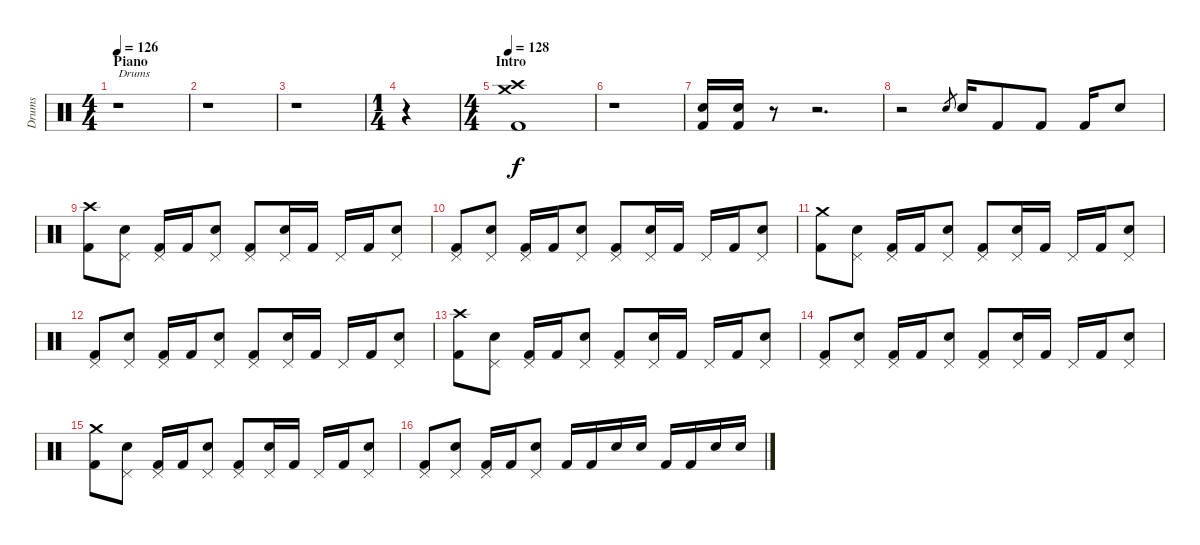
\track ("Drums" "Drums") {instrument percussion}
\staff {score}
\articulation defaults
\ts (4 4)
\section ("" "Piano")
\tempo 126
\tempo 90
\tempo 126
\clef neutral
\ks c
r.1{txt "Drums" dy f} |
r.1 |
r.1 |
\ts (1 4)
r.4 |
\ts (4 4)
\section ("" "Intro")
\tempo 128
("Crash high (hit)" "Crash medium (hit)" "Kick (hit) 2").1 |
r.1 |
("Snare (hit) 2" "Kick (hit) 2").16 ("Snare (hit) 2" "Kick (hit) 2").16 r.8 r.2{d} |
r.2 "Snare (hit) 2".8{gr} "Snare (hit) 2".16 "Kick (hit) 2".8 "Kick (hit) 2".8 "Kick (hit) 2".16 "Snare (hit) 2".8 |
("Crash high (hit)" "Kick (hit) 2").8 ("Pedal Hi-Hat (hit)" "Snare (hit) 2").8 ("Pedal Hi-Hat (hit)" "Kick (hit) 2").16 "Kick (hit) 2".16 ("Pedal Hi-Hat (hit)" "Snare (hit) 2").8 ("Pedal Hi-Hat (hit)" "Kick (hit) 2").8 ("Pedal Hi-Hat (hit)" "Snare (hit) 2").16 "Kick (hit) 2".16 "Pedal Hi-Hat (hit)".16 "Kick (hit) 2".16 ("Pedal Hi-Hat (hit)" "Snare (hit) 2").8 |
("Pedal Hi-Hat (hit)" "Kick (hit) 2").8 ("Pedal Hi-Hat (hit)" "Snare (hit) 2").8 ("Pedal Hi-Hat (hit)" "Kick (hit) 2").16 "Kick (hit) 2".16 ("Pedal Hi-Hat (hit)" "Snare (hit) 2").8 ("Pedal Hi-Hat (hit)" "Kick (hit) 2").8 ("Pedal Hi-Hat (hit)" "Snare (hit) 2").16 "Kick (hit) 2".16 "Pedal Hi-Hat (hit)".16 "Kick (hit) 2".16 ("Pedal Hi-Hat (hit)" "Snare (hit) 2").8 |
("Crash medium (hit)" "Kick (hit) 2").8 ("Pedal Hi-Hat (hit)" "Snare (hit) 2").8 ("Pedal Hi-Hat (hit)" "Kick (hit) 2").16 "Kick (hit) 2".16 ("Pedal Hi-Hat (hit)" "Snare (hit) 2").8 ("Pedal Hi-Hat (hit)" "Kick (hit) 2").8 ("Pedal Hi-Hat (hit)" "Snare (hit) 2").16 "Kick (hit) 2".16 "Pedal Hi-Hat (hit)".16 "Kick (hit) 2".16 ("Pedal Hi-Hat (hit)" "Snare (hit) 2").8 |
("Pedal Hi-Hat (hit)" "Kick (hit) 2").8 ("Pedal Hi-Hat (hit)" "Snare (hit) 2").8 ("Pedal Hi-Hat (hit)" "Kick (hit) 2").16 "Kick (hit) 2".16 ("Pedal Hi-Hat (hit)" "Snare (hit) 2").8 ("Pedal Hi-Hat (hit)" "Kick (hit) 2").8 ("Pedal Hi-Hat (hit)" "Snare (hit) 2").16 "Kick (hit) 2".16 "Pedal Hi-Hat (hit)".16 "Kick (hit) 2".16 ("Pedal Hi-Hat (hit)" "Snare (hit) 2").8 |
("Crash high (hit)" "Kick (hit) 2").8 ("Pedal Hi-Hat (hit)" "Snare (hit) 2").8 ("Pedal Hi-Hat (hit)" "Kick (hit) 2").16 "Kick (hit) 2".16 ("Pedal Hi-Hat (hit)" "Snare (hit) 2").8 ("Pedal Hi-Hat (hit)" "Kick (hit) 2").8 ("Pedal Hi-Hat (hit)" "Snare (hit) 2").16 "Kick (hit) 2".16 "Pedal Hi-Hat (hit)".16 "Kick (hit) 2".16 ("Pedal Hi-Hat (hit)" "Snare (hit) 2").8 |
("Pedal Hi-Hat (hit)" "Kick (hit) 2").8 ("Pedal Hi-Hat (hit)" "Snare (hit) 2").8 ("Pedal Hi-Hat (hit)" "Kick (hit) 2").16 "Kick (hit) 2".16 ("Pedal Hi-Hat (hit)" "Snare (hit) 2").8 ("Pedal Hi-Hat (hit)" "Kick (hit) 2").8 ("Pedal Hi-Hat (hit)" "Snare (hit) 2").16 "Kick (hit) 2".16 "Pedal Hi-Hat (hit)".16 "Kick (hit) 2".16 ("Pedal Hi-Hat (hit)" "Snare (hit) 2").8 |
("Crash medium (hit)" "Kick (hit) 2").8 ("Pedal Hi-Hat (hit)" "Snare (hit) 2").8 ("Pedal Hi-Hat (hit)" "Kick (hit) 2").16 "Kick (hit) 2".16 ("Pedal Hi-Hat (hit)" "Snare (hit) 2").8 ("Pedal Hi-Hat (hit)" "Kick (hit) 2").8 ("Pedal Hi-Hat (hit)" "Snare (hit) 2").16 "Kick (hit) 2".16 "Pedal Hi-Hat (hit)".16 "Kick (hit) 2".16 ("Pedal Hi-Hat (hit)" "Snare (hit) 2").8 |
("Pedal Hi-Hat (hit)" "Kick (hit) 2").8 ("Pedal Hi-Hat (hit)" "Snare (hit) 2").8 ("Pedal Hi-Hat (hit)" "Kick (hit) 2").16 "Kick (hit) 2".16 ("Pedal Hi-Hat (hit)" "Snare (hit) 2").8 "Kick (hit) 2".16 "Kick (hit) 2".16 "Snare (hit) 2".16 "Snare (hit) 2".16 "Kick (hit) 2".16 "Kick (hit) 2".16 "Snare (hit) 2".16 "Snare (hit) 2".16
